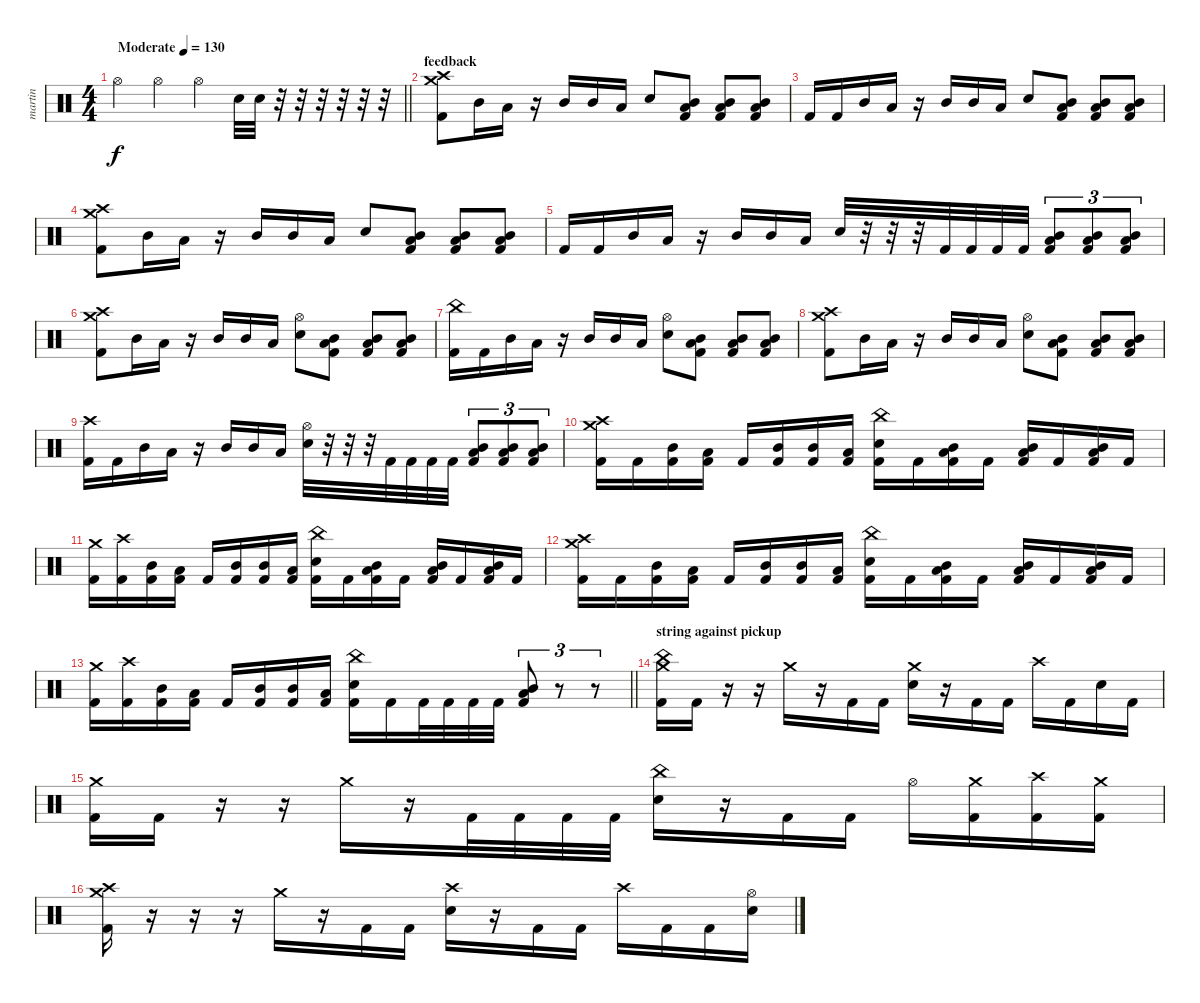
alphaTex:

\track ("martin" "martin") {instrument percussion}
\staff {score}
\articulation defaults
\ts (4 4)
\tempo (130 "Moderate")
\clef neutral
\barLineRight lightlight
\ks c "Hi-Hat (open)".4{dy f} "Hi-Hat (open)".4 "Hi-Hat (open)".4 "Electric Snare (hit)".32 "Electric Snare (hit)".32
r.32 r.32 r.32 r.32 r.32 r.32 |
\section ("" "feedback")
("Crash medium (hit)" "Crash high (hit)" "Kick (hit) 2").8 "Mid Tom (hit)".16 "Low Floor Tom (hit)".16 r.16 "Mid Tom (hit)".16 "Mid Tom (hit)".16 "Low Floor Tom (hit)".16 "Electric Snare (hit)".8 ("Low Floor Tom (hit)" "Mid Tom (hit)" "Kick (hit) 2").8 ("Low Floor Tom (hit)" "Mid Tom (hit)" "Kick (hit) 2").8 ("Low Floor Tom (hit)" "Mid Tom (hit)" "Kick (hit) 2").8 |
"Kick (hit) 2".16 "Kick (hit) 2".16 "Mid Tom (hit)".16 "Low Floor Tom (hit)".16 r.16 "Mid Tom (hit)".16 "Mid Tom (hit)".16 "Low Floor Tom (hit)".16 "Electric Snare (hit)".8 ("Low Floor Tom (hit)" "Mid Tom (hit)" "Kick (hit) 2").8 ("Low Floor Tom (hit)" "Mid Tom (hit)" "Kick (hit) 2").8 ("Low Floor Tom (hit)" "Mid Tom (hit)" "Kick (hit) 2").8 |
("Crash medium (hit)" "Crash high (hit)" "Kick (hit) 2").8 "Mid Tom (hit)".16 "Low Floor Tom (hit)".16 r.16 "Mid Tom (hit)".16 "Mid Tom (hit)".16 "Low Floor Tom (hit)".16 "Electric Snare (hit)".8 ("Low Floor Tom (hit)" "Mid Tom (hit)" "Kick (hit) 2").8 ("Low Floor Tom (hit)" "Mid Tom (hit)" "Kick (hit) 2").8 ("Low Floor Tom (hit)" "Mid Tom (hit)" "Kick (hit) 2").8 |
"Kick (hit) 2".16 "Kick (hit) 2".16 "Mid Tom (hit)".16 "Low Floor Tom (hit)".16 r.16 "Mid Tom (hit)".16 "Mid Tom (hit)".16 "Low Floor Tom (hit)".16 "Electric Snare (hit)".32 r.32 r.32 r.32 "Kick (hit) 2".32 "Kick (hit) 2".32 "Kick (hit) 2".32 "Kick (hit) 2".32 ("Mid Tom (hit)" "Low Floor Tom (hit)" "Kick (hit) 2").8{tu (3 2)} ("Mid Tom (hit)" "Low Floor Tom (hit)" "Kick (hit) 2").8{tu (3 2)} ("Mid Tom (hit)" "Low Floor Tom (hit)" "Kick (hit) 2").8{tu (3 2)} |
("Crash medium (hit)" "Crash high (hit)" "Kick (hit) 2").8 "Mid Tom (hit)".16 "Low Floor Tom (hit)".16 r.16 "Mid Tom (hit)".16 "Mid Tom (hit)".16 "Low Floor Tom (hit)".16 ("Hi-Hat (open)" "Electric Snare (hit)").8 ("Low Floor Tom (hit)" "Mid Tom (hit)" "Kick (hit) 2").8 ("Low Floor Tom (hit)" "Mid Tom (hit)" "Kick (hit) 2").8 ("Low Floor Tom (hit)" "Mid Tom (hit)" "Kick (hit) 2").8 |
("China (hit)" "Kick (hit) 2").16 "Kick (hit) 2".16 "Mid Tom (hit)".16 "Low Floor Tom (hit)".16 r.16 "Mid Tom (hit)".16 "Mid Tom (hit)".16 "Low Floor Tom (hit)".16 ("Hi-Hat (open)" "Electric Snare (hit)").8 ("Low Floor Tom (hit)" "Mid Tom (hit)" "Kick (hit) 2").8 ("Low Floor Tom (hit)" "Mid Tom (hit)" "Kick (hit) 2").8 ("Low Floor Tom (hit)" "Mid Tom (hit)" "Kick (hit) 2").8 |
("Crash medium (hit)" "Crash high (hit)" "Kick (hit) 2").8 "Mid Tom (hit)".16 "Low Floor Tom (hit)".16 r.16 "Mid Tom (hit)".16 "Mid Tom (hit)".16 "Low Floor Tom (hit)".16 ("Hi-Hat (open)" "Electric Snare (hit)").8 ("Low Floor Tom (hit)" "Mid Tom (hit)" "Kick (hit) 2").8 ("Low Floor Tom (hit)" "Mid Tom (hit)" "Kick (hit) 2").8 ("Low Floor Tom (hit)" "Mid Tom (hit)" "Kick (hit) 2").8 |
("Crash high (hit)" "Kick (hit) 2").16 "Kick (hit) 2".16 "Mid Tom (hit)".16 "Low Floor Tom (hit)".16 r.16 "Mid Tom (hit)".16 "Mid Tom (hit)".16 "Low Floor Tom (hit)".16 ("Hi-Hat (open)" "Electric Snare (hit)").32 r.32 r.32 r.32 "Kick (hit) 2".32 "Kick (hit) 2".32 "Kick (hit) 2".32 "Kick (hit) 2".32 ("Mid Tom (hit)" "Low Floor Tom (hit)" "Kick (hit) 2").8{tu (3 2)} ("Mid Tom (hit)" "Low Floor Tom (hit)" "Kick (hit) 2").8{tu (3 2)} ("Mid Tom (hit)" "Low Floor Tom (hit)" "Kick (hit) 2").8{tu (3 2)} |
("Crash medium (hit)" "Crash high (hit)" "Kick (hit) 2").16 "Kick (hit) 2".16 ("Mid Tom (hit)" "Kick (hit) 2").16 ("Low Floor Tom (hit)" "Kick (hit) 2").16 "Kick (hit) 2".16 ("Mid Tom (hit)" "Kick (hit) 2").16 ("Mid Tom (hit)" "Kick (hit) 2").16 ("Low Floor Tom (hit)" "Kick (hit) 2").16 ("China (hit)" "Electric Snare (hit)" "Kick (hit) 2").16 "Kick (hit) 2".16 ("Low Floor Tom (hit)" "Mid Tom (hit)" "Kick (hit) 2").16 "Kick (hit) 2".16 ("Low Floor Tom (hit)" "Mid Tom (hit)" "Kick (hit) 2").16 "Kick (hit) 2".16 ("Low Floor Tom (hit)" "Mid Tom (hit)" "Kick (hit) 2").16 "Kick (hit) 2".16 |
("Crash medium (hit)" "Kick (hit) 2").16 ("Crash high (hit)" "Kick (hit) 2").16 ("Mid Tom (hit)" "Kick (hit) 2").16 ("Low Floor Tom (hit)" "Kick (hit) 2").16 "Kick (hit) 2".16 ("Mid Tom (hit)" "Kick (hit) 2").16 ("Mid Tom (hit)" "Kick (hit) 2").16 ("Low Floor Tom (hit)" "Kick (hit) 2").16 ("China (hit)" "Electric Snare (hit)" "Kick (hit) 2").16 "Kick (hit) 2".16 ("Low Floor Tom (hit)" "Mid Tom (hit)" "Kick (hit) 2").16 "Kick (hit) 2".16 ("Low Floor Tom (hit)" "Mid Tom (hit)" "Kick (hit) 2").16 "Kick (hit) 2".16 ("Low Floor Tom (hit)" "Mid Tom (hit)" "Kick (hit) 2").16 "Kick (hit) 2".16 |
("Crash medium (hit)" "Crash high (hit)" "Kick (hit) 2").16 "Kick (hit) 2".16 ("Mid Tom (hit)" "Kick (hit) 2").16 ("Low Floor Tom (hit)" "Kick (hit) 2").16 "Kick (hit) 2".16 ("Mid Tom (hit)" "Kick (hit) 2").16 ("Mid Tom (hit)" "Kick (hit) 2").16 ("Low Floor Tom (hit)" "Kick (hit) 2").16 ("China (hit)" "Electric Snare (hit)" "Kick (hit) 2").16 "Kick (hit) 2".16 ("Low Floor Tom (hit)" "Mid Tom (hit)" "Kick (hit) 2").16 "Kick (hit) 2".16 ("Low Floor Tom (hit)" "Mid Tom (hit)" "Kick (hit) 2").16 "Kick (hit) 2".16 ("Low Floor Tom (hit)" "Mid Tom (hit)" "Kick (hit) 2").16 "Kick (hit) 2".16 |
\barLineRight lightlight
("Crash medium (hit)" "Kick (hit) 2").16 ("Crash high (hit)" "Kick (hit) 2").16 ("Mid Tom (hit)" "Kick (hit) 2").16 ("Low Floor Tom (hit)" "Kick (hit) 2").16 "Kick (hit) 2".16 ("Mid Tom (hit)" "Kick (hit) 2").16 ("Mid Tom (hit)" "Kick (hit) 2").16 ("Low Floor Tom (hit)" "Kick (hit) 2").16 ("China (hit)" "Electric Snare (hit)" "Kick (hit) 2").16 "Kick (hit) 2".16 "Kick (hit) 2".32 "Kick (hit) 2".32 "Kick (hit) 2".32 "Kick (hit) 2".32 ("Mid Tom (hit)" "Low Floor Tom (hit)" "Kick (hit) 2").8{tu (3 2) bd 240} r.8{tu (3 2)} r.8{tu (3 2)} |
\section ("" "string against pickup")
("Crash medium (hit)" "China (hit)" "Kick (hit) 2").16 "Kick (hit) 2".16 r.16 r.16 "Crash medium (hit)".16 r.16 "Kick (hit) 2".16 "Kick (hit) 2".16 ("Crash medium (hit)" "Electric Snare (hit)").16 r.16 "Kick (hit) 2".16 "Kick (hit) 2".16 "Crash high (hit)".16 "Kick (hit) 2".16 "Electric Snare (hit)".16 "Kick (hit) 2".16 |
("Crash medium (hit)" "Kick (hit) 2").16 "Kick (hit) 2".16 r.16 r.16 "Crash medium (hit)".16 r.16 "Kick (hit) 2".32 "Kick (hit) 2".32 "Kick (hit) 2".32 "Kick (hit) 2".32 ("China (hit)" "Electric Snare (hit)").16 r.16 "Kick (hit) 2".16 "Kick (hit) 2".16 "Hi-Hat (open)".16 ("Crash medium (hit)" "Kick (hit) 2").16 ("Crash high (hit)" "Kick (hit) 2").16 ("Crash medium (hit)" "Kick (hit) 2").16 |
("Crash medium (hit)" "Crash high (hit)" "Kick (hit) 2").16 r.16 r.16 r.16 "Crash medium (hit)".16 r.16 "Kick (hit) 2".16 "Kick (hit) 2".16 ("Crash high (hit)" "Electric Snare (hit)").16 r.16 "Kick (hit) 2".16 "Kick (hit) 2".16 "Crash high (hit)".16 "Kick (hit) 2".16 "Kick (hit) 2".16 ("Hi-Hat (open)" "Electric Snare (hit)").16
